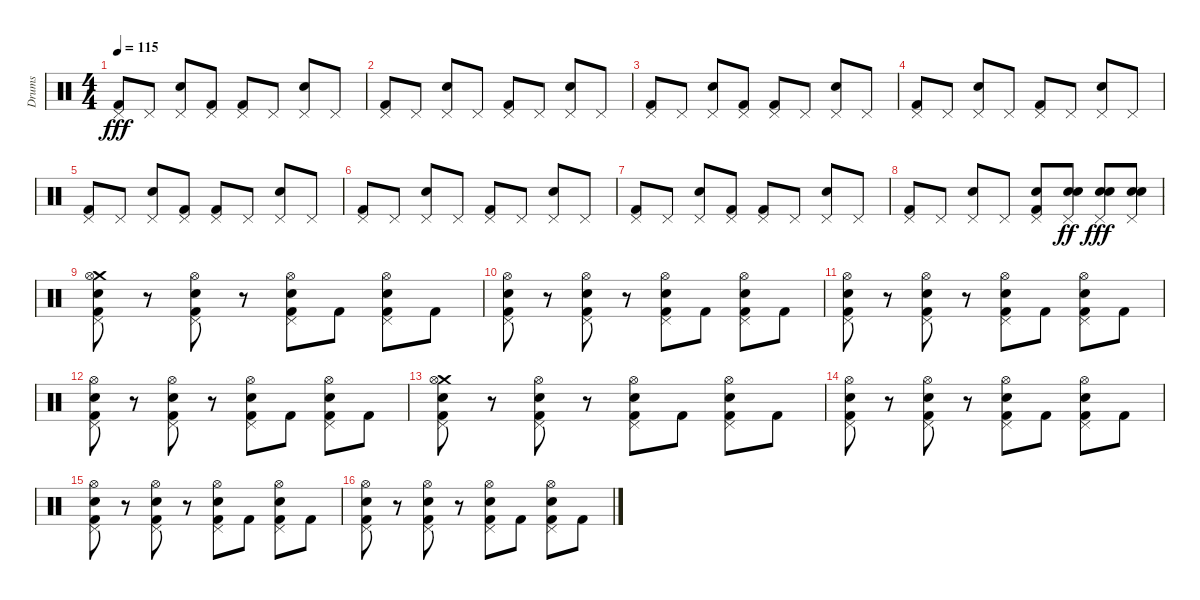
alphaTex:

\track ("Drums" "Drums") {instrument percussion}
\staff {score}
\articulation defaults
\ts (4 4)
\tempo 115
\clef neutral
\ks c
("Kick (hit) 2" "Pedal Hi-Hat (hit)").8{dy fff} "Pedal Hi-Hat (hit)".8 ("Snare (hit) 2" "Pedal Hi-Hat (hit)").8 ("Pedal Hi-Hat (hit)" "Kick (hit) 2").8 ("Pedal Hi-Hat (hit)" "Kick (hit) 2").8 "Pedal Hi-Hat (hit)".8 ("Pedal Hi-Hat (hit)" "Snare (hit) 2").8 "Pedal Hi-Hat (hit)".8 |
("Kick (hit) 2" "Pedal Hi-Hat (hit)").8 "Pedal Hi-Hat (hit)".8 ("Snare (hit) 2" "Pedal Hi-Hat (hit)").8 "Pedal Hi-Hat (hit)".8 ("Pedal Hi-Hat (hit)" "Kick (hit) 2").8 "Pedal Hi-Hat (hit)".8 ("Pedal Hi-Hat (hit)" "Snare (hit) 2").8 "Pedal Hi-Hat (hit)".8 |
("Kick (hit) 2" "Pedal Hi-Hat (hit)").8 "Pedal Hi-Hat (hit)".8 ("Snare (hit) 2" "Pedal Hi-Hat (hit)").8 ("Pedal Hi-Hat (hit)" "Kick (hit) 2").8 ("Pedal Hi-Hat (hit)" "Kick (hit) 2").8 "Pedal Hi-Hat (hit)".8 ("Pedal Hi-Hat (hit)" "Snare (hit) 2").8 "Pedal Hi-Hat (hit)".8 |
("Kick (hit) 2" "Pedal Hi-Hat (hit)").8 "Pedal Hi-Hat (hit)".8 ("Snare (hit) 2" "Pedal Hi-Hat (hit)").8 "Pedal Hi-Hat (hit)".8 ("Pedal Hi-Hat (hit)" "Kick (hit) 2").8 "Pedal Hi-Hat (hit)".8 ("Pedal Hi-Hat (hit)" "Snare (hit) 2").8 "Pedal Hi-Hat (hit)".8 |
("Kick (hit) 2" "Pedal Hi-Hat (hit)").8 "Pedal Hi-Hat (hit)".8 ("Snare (hit) 2" "Pedal Hi-Hat (hit)").8 ("Pedal Hi-Hat (hit)" "Kick (hit) 2").8 ("Pedal Hi-Hat (hit)" "Kick (hit) 2").8 "Pedal Hi-Hat (hit)".8 ("Pedal Hi-Hat (hit)" "Snare (hit) 2").8 "Pedal Hi-Hat (hit)".8 |
("Kick (hit) 2" "Pedal Hi-Hat (hit)").8 "Pedal Hi-Hat (hit)".8 ("Snare (hit) 2" "Pedal Hi-Hat (hit)").8 "Pedal Hi-Hat (hit)".8 ("Pedal Hi-Hat (hit)" "Kick (hit) 2").8 "Pedal Hi-Hat (hit)".8 ("Pedal Hi-Hat (hit)" "Snare (hit) 2").8 "Pedal Hi-Hat (hit)".8 |
("Kick (hit) 2" "Pedal Hi-Hat (hit)").8 "Pedal Hi-Hat (hit)".8 ("Snare (hit) 2" "Pedal Hi-Hat (hit)").8 ("Pedal Hi-Hat (hit)" "Kick (hit) 2").8 ("Pedal Hi-Hat (hit)" "Kick (hit) 2").8 "Pedal Hi-Hat (hit)".8 ("Pedal Hi-Hat (hit)" "Snare (hit) 2").8 "Pedal Hi-Hat (hit)".8 |
("Kick (hit) 2" "Pedal Hi-Hat (hit)").8 "Pedal Hi-Hat (hit)".8 ("Snare (hit) 2" "Pedal Hi-Hat (hit)").8 "Pedal Hi-Hat (hit)".8 ("Kick (hit) 2" "Pedal Hi-Hat (hit)" "Snare (hit) 2").8{volume 4} ("Snare (hit) 2" "Snare (hit) 2" "Pedal Hi-Hat (hit)").8{dy ff volume 6} ("Snare (hit) 2" "Pedal Hi-Hat (hit)" "Snare (hit) 2").8{dy fff volume 9} ("Snare (hit) 2" "Snare (hit) 2" "Pedal Hi-Hat (hit)").8{volume 12} |
("Crash medium (hit)" "Pedal Hi-Hat (hit)" "Hi-Hat (open)" "Kick (hit) 2" "Snare (hit) 2").8 r.8 ("Pedal Hi-Hat (hit)" "Hi-Hat (open)" "Kick (hit) 2" "Snare (hit) 2").8 r.8 ("Pedal Hi-Hat (hit)" "Hi-Hat (open)" "Kick (hit) 2" "Snare (hit) 2").8 "Kick (hit) 2".8 ("Pedal Hi-Hat (hit)" "Hi-Hat (open)" "Kick (hit) 2" "Snare (hit) 2").8 "Kick (hit) 2".8 |
("Pedal Hi-Hat (hit)" "Hi-Hat (open)" "Kick (hit) 2" "Snare (hit) 2").8 r.8 ("Pedal Hi-Hat (hit)" "Hi-Hat (open)" "Kick (hit) 2" "Snare (hit) 2").8 r.8 ("Pedal Hi-Hat (hit)" "Hi-Hat (open)" "Kick (hit) 2" "Snare (hit) 2").8 "Kick (hit) 2".8 ("Pedal Hi-Hat (hit)" "Hi-Hat (open)" "Kick (hit) 2" "Snare (hit) 2").8 "Kick (hit) 2".8 |
("Pedal Hi-Hat (hit)" "Hi-Hat (open)" "Kick (hit) 2" "Snare (hit) 2").8 r.8 ("Pedal Hi-Hat (hit)" "Hi-Hat (open)" "Kick (hit) 2" "Snare (hit) 2").8 r.8 ("Pedal Hi-Hat (hit)" "Hi-Hat (open)" "Kick (hit) 2" "Snare (hit) 2").8 "Kick (hit) 2".8 ("Pedal Hi-Hat (hit)" "Hi-Hat (open)" "Kick (hit) 2" "Snare (hit) 2").8 "Kick (hit) 2".8 |
("Pedal Hi-Hat (hit)" "Hi-Hat (open)" "Kick (hit) 2" "Snare (hit) 2").8 r.8 ("Pedal Hi-Hat (hit)" "Hi-Hat (open)" "Kick (hit) 2" "Snare (hit) 2").8 r.8 ("Pedal Hi-Hat (hit)" "Hi-Hat (open)" "Kick (hit) 2" "Snare (hit) 2").8 "Kick (hit) 2".8 ("Pedal Hi-Hat (hit)" "Hi-Hat (open)" "Kick (hit) 2" "Snare (hit) 2").8 "Kick (hit) 2".8 |
("Crash medium (hit)" "Pedal Hi-Hat (hit)" "Hi-Hat (open)" "Kick (hit) 2" "Snare (hit) 2").8 r.8 ("Pedal Hi-Hat (hit)" "Hi-Hat (open)" "Kick (hit) 2" "Snare (hit) 2").8 r.8 ("Pedal Hi-Hat (hit)" "Hi-Hat (open)" "Kick (hit) 2" "Snare (hit) 2").8 "Kick (hit) 2".8 ("Pedal Hi-Hat (hit)" "Hi-Hat (open)" "Kick (hit) 2" "Snare (hit) 2").8 "Kick (hit) 2".8 |
("Pedal Hi-Hat (hit)" "Hi-Hat (open)" "Kick (hit) 2" "Snare (hit) 2").8 r.8 ("Pedal Hi-Hat (hit)" "Hi-Hat (open)" "Kick (hit) 2" "Snare (hit) 2").8 r.8 ("Pedal Hi-Hat (hit)" "Hi-Hat (open)" "Kick (hit) 2" "Snare (hit) 2").8 "Kick (hit) 2".8 ("Pedal Hi-Hat (hit)" "Hi-Hat (open)" "Kick (hit) 2" "Snare (hit) 2").8 "Kick (hit) 2".8 |
("Pedal Hi-Hat (hit)" "Hi-Hat (open)" "Kick (hit) 2" "Snare (hit) 2").8 r.8 ("Pedal Hi-Hat (hit)" "Hi-Hat (open)" "Kick (hit) 2" "Snare (hit) 2").8 r.8 ("Pedal Hi-Hat (hit)" "Hi-Hat (open)" "Kick (hit) 2" "Snare (hit) 2").8 "Kick (hit) 2".8 ("Pedal Hi-Hat (hit)" "Hi-Hat (open)" "Kick (hit) 2" "Snare (hit) 2").8 "Kick (hit) 2".8 |
("Pedal Hi-Hat (hit)" "Hi-Hat (open)" "Kick (hit) 2" "Snare (hit) 2").8 r.8 ("Pedal Hi-Hat (hit)" "Hi-Hat (open)" "Kick (hit) 2" "Snare (hit) 2").8 r.8 ("Pedal Hi-Hat (hit)" "Hi-Hat (open)" "Kick (hit) 2" "Snare (hit) 2").8 "Kick (hit) 2".8 ("Pedal Hi-Hat (hit)" "Hi-Hat (open)" "Kick (hit) 2" "Snare (hit) 2").8 "Kick (hit) 2".8
